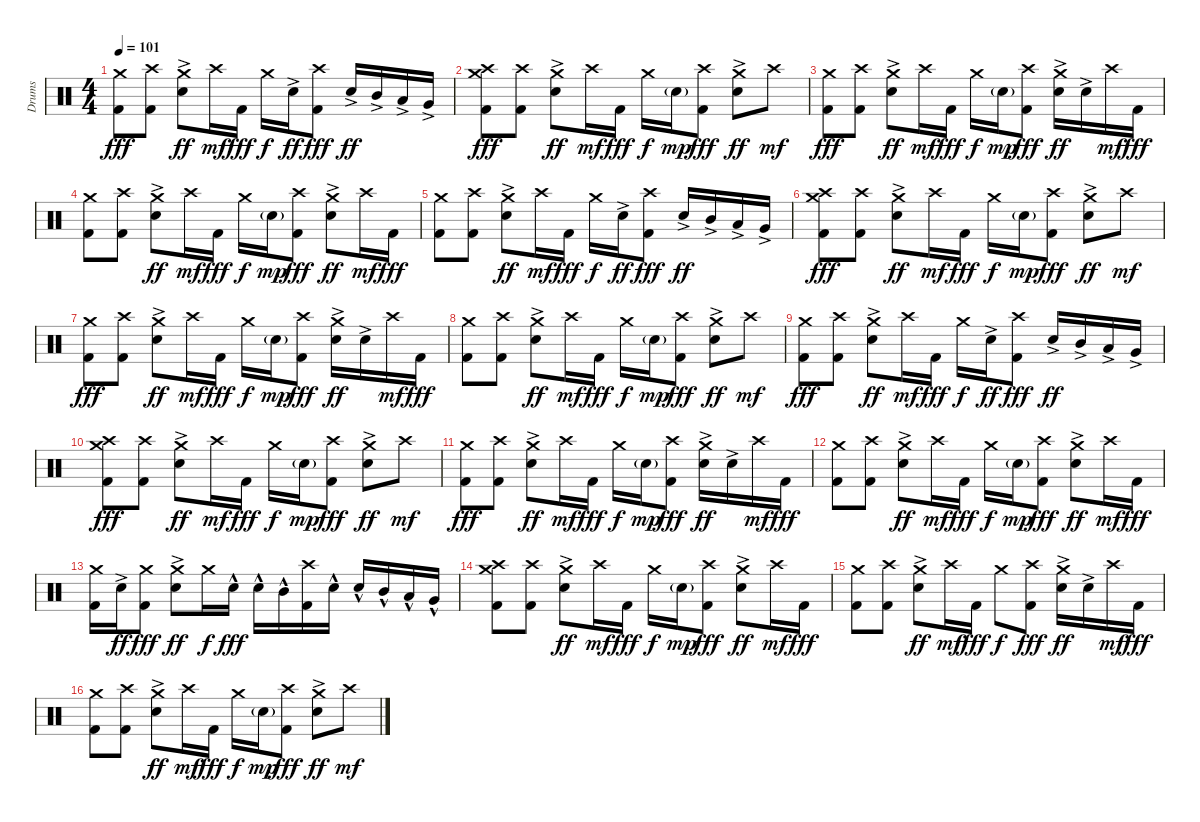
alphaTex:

\track ("Drums" "Drums") {instrument percussion}
\staff {score}
\articulation defaults
\ts (4 4)
\tempo 101
\clef neutral
\ks c
("Crash medium (hit)" "Kick (hit) 2").8{dy fff} ("Crash high (hit)" "Kick (hit) 2").8 ("Crash medium (hit)" "Electric Snare (hit)"{ac}).8{dy ff} "Crash high (hit)".16{dy mf} "Kick (hit) 2".16{dy fff} "Crash medium (hit)".16{dy f} "Electric Snare (hit)"{ac}.16{dy ff} ("Crash high (hit)" "Kick (hit) 2").8{dy fff} "Electric Snare (hit)"{ac}.16{dy ff} "Mid Tom (hit)"{ac}.16 "Low Tom (hit)"{ac}.16 "Very Low Tom (hit)"{ac}.16 |
("Crash medium (hit)" "Crash high (hit)" "Kick (hit) 2").8{dy fff} ("Crash high (hit)" "Kick (hit) 2").8 ("Crash medium (hit)" "Electric Snare (hit)"{ac}).8{dy ff} "Crash high (hit)".16{dy mf} "Kick (hit) 2".16{dy fff} "Crash medium (hit)".16{dy f} "Snare (hit) 2"{g}.16{dy mp} ("Crash high (hit)" "Kick (hit) 2").8{dy fff} ("Crash medium (hit)" "Electric Snare (hit)"{ac}).8{dy ff} "Crash high (hit)".8{dy mf} |
("Crash medium (hit)" "Kick (hit) 2").8{dy fff} ("Crash high (hit)" "Kick (hit) 2").8 ("Crash medium (hit)" "Electric Snare (hit)"{ac}).8{dy ff} "Crash high (hit)".16{dy mf} "Kick (hit) 2".16{dy fff} "Crash medium (hit)".16{dy f} "Snare (hit) 2"{g}.16{dy mp} ("Crash high (hit)" "Kick (hit) 2").8{dy fff} ("Crash medium (hit)" "Electric Snare (hit)"{ac}).16{dy ff} "Electric Snare (hit)"{ac}.16 "Crash high (hit)".16{dy mf} "Kick (hit) 2".16{dy fff} |
("Crash medium (hit)" "Kick (hit) 2").8 ("Crash high (hit)" "Kick (hit) 2").8 ("Crash medium (hit)" "Electric Snare (hit)"{ac}).8{dy ff} "Crash high (hit)".16{dy mf} "Kick (hit) 2".16{dy fff} "Crash medium (hit)".16{dy f} "Snare (hit) 2"{g}.16{dy mp} ("Crash high (hit)" "Kick (hit) 2").8{dy fff} ("Crash medium (hit)" "Electric Snare (hit)"{ac}).8{dy ff} "Crash high (hit)".16{dy mf} "Kick (hit) 2".16{dy fff} |
("Crash medium (hit)" "Kick (hit) 2").8 ("Crash high (hit)" "Kick (hit) 2").8 ("Crash medium (hit)" "Electric Snare (hit)"{ac}).8{dy ff} "Crash high (hit)".16{dy mf} "Kick (hit) 2".16{dy fff} "Crash medium (hit)".16{dy f} "Electric Snare (hit)"{ac}.16{dy ff} ("Crash high (hit)" "Kick (hit) 2").8{dy fff} "Electric Snare (hit)"{ac}.16{dy ff} "Mid Tom (hit)"{ac}.16 "Low Tom (hit)"{ac}.16 "Very Low Tom (hit)"{ac}.16 |
("Crash medium (hit)" "Crash high (hit)" "Kick (hit) 2").8{dy fff} ("Crash high (hit)" "Kick (hit) 2").8 ("Crash medium (hit)" "Electric Snare (hit)"{ac}).8{dy ff} "Crash high (hit)".16{dy mf} "Kick (hit) 2".16{dy fff} "Crash medium (hit)".16{dy f} "Snare (hit) 2"{g}.16{dy mp} ("Crash high (hit)" "Kick (hit) 2").8{dy fff} ("Crash medium (hit)" "Electric Snare (hit)"{ac}).8{dy ff} "Crash high (hit)".8{dy mf} |
("Crash medium (hit)" "Kick (hit) 2").8{dy fff} ("Crash high (hit)" "Kick (hit) 2").8 ("Crash medium (hit)" "Electric Snare (hit)"{ac}).8{dy ff} "Crash high (hit)".16{dy mf} "Kick (hit) 2".16{dy fff} "Crash medium (hit)".16{dy f} "Snare (hit) 2"{g}.16{dy mp} ("Crash high (hit)" "Kick (hit) 2").8{dy fff} ("Crash medium (hit)" "Electric Snare (hit)"{ac}).16{dy ff} "Electric Snare (hit)"{ac}.16 "Crash high (hit)".16{dy mf} "Kick (hit) 2".16{dy fff} |
("Crash medium (hit)" "Kick (hit) 2").8 ("Crash high (hit)" "Kick (hit) 2").8 ("Crash medium (hit)" "Electric Snare (hit)"{ac}).8{dy ff} "Crash high (hit)".16{dy mf} "Kick (hit) 2".16{dy fff} "Crash medium (hit)".16{dy f} "Snare (hit) 2"{g}.16{dy mp} ("Crash high (hit)" "Kick (hit) 2").8{dy fff} ("Crash medium (hit)" "Electric Snare (hit)"{ac}).8{dy ff} "Crash high (hit)".8{dy mf} |
("Crash medium (hit)" "Kick (hit) 2").8{dy fff} ("Crash high (hit)" "Kick (hit) 2").8 ("Crash medium (hit)" "Electric Snare (hit)"{ac}).8{dy ff} "Crash high (hit)".16{dy mf} "Kick (hit) 2".16{dy fff} "Crash medium (hit)".16{dy f} "Electric Snare (hit)"{ac}.16{dy ff} ("Crash high (hit)" "Kick (hit) 2").8{dy fff} "Electric Snare (hit)"{ac}.16{dy ff} "Mid Tom (hit)"{ac}.16 "Low Tom (hit)"{ac}.16 "Very Low Tom (hit)"{ac}.16 |
("Crash medium (hit)" "Crash high (hit)" "Kick (hit) 2").8{dy fff} ("Crash high (hit)" "Kick (hit) 2").8 ("Crash medium (hit)" "Electric Snare (hit)"{ac}).8{dy ff} "Crash high (hit)".16{dy mf} "Kick (hit) 2".16{dy fff} "Crash medium (hit)".16{dy f} "Snare (hit) 2"{g}.16{dy mp} ("Crash high (hit)" "Kick (hit) 2").8{dy fff} ("Crash medium (hit)" "Electric Snare (hit)"{ac}).8{dy ff} "Crash high (hit)".8{dy mf} |
("Crash medium (hit)" "Kick (hit) 2").8{dy fff} ("Crash high (hit)" "Kick (hit) 2").8 ("Crash medium (hit)" "Electric Snare (hit)"{ac}).8{dy ff} "Crash high (hit)".16{dy mf} "Kick (hit) 2".16{dy fff} "Crash medium (hit)".16{dy f} "Snare (hit) 2"{g}.16{dy mp} ("Crash high (hit)" "Kick (hit) 2").8{dy fff} ("Crash medium (hit)" "Electric Snare (hit)"{ac}).16{dy ff} "Electric Snare (hit)"{ac}.16 "Crash high (hit)".16{dy mf} "Kick (hit) 2".16{dy fff} |
("Crash medium (hit)" "Kick (hit) 2").8 ("Crash high (hit)" "Kick (hit) 2").8 ("Crash medium (hit)" "Electric Snare (hit)"{ac}).8{dy ff} "Crash high (hit)".16{dy mf} "Kick (hit) 2".16{dy fff} "Crash medium (hit)".16{dy f} "Snare (hit) 2"{g}.16{dy mp} ("Crash high (hit)" "Kick (hit) 2").8{dy fff} ("Crash medium (hit)" "Electric Snare (hit)"{ac}).8{dy ff} "Crash high (hit)".16{dy mf} "Kick (hit) 2".16{dy fff} |
("Crash medium (hit)" "Kick (hit) 2").16 "Electric Snare (hit)"{ac}.16{dy ff} ("Crash medium (hit)" "Kick (hit) 2").8{dy fff} ("Crash medium (hit)" "Electric Snare (hit)"{ac}).8{dy ff} "Crash medium (hit)".16{dy f} "Electric Snare (hit)"{hac}.16{dy fff} "Electric Snare (hit)"{hac}.16 "Mid Tom (hit)"{hac}.16 ("Crash high (hit)" "Kick (hit) 2").16 "Electric Snare (hit)"{hac}.16 "Electric Snare (hit)"{hac}.16 "Mid Tom (hit)"{hac}.16 "Low Tom (hit)"{hac}.16 "Very Low Tom (hit)"{hac}.16 |
("Crash medium (hit)" "Crash high (hit)" "Kick (hit) 2").8 ("Crash high (hit)" "Kick (hit) 2").8 ("Crash medium (hit)" "Electric Snare (hit)"{ac}).8{dy ff} "Crash high (hit)".16{dy mf} "Kick (hit) 2".16{dy fff} "Crash medium (hit)".16{dy f} "Snare (hit) 2"{g}.16{dy mp} ("Crash high (hit)" "Kick (hit) 2").8{dy fff} ("Crash medium (hit)" "Electric Snare (hit)"{ac}).8{dy ff} "Crash high (hit)".16{dy mf} "Kick (hit) 2".16{dy fff} |
("Crash medium (hit)" "Kick (hit) 2").8 ("Crash high (hit)" "Kick (hit) 2").8 ("Crash medium (hit)" "Electric Snare (hit)"{ac}).8{dy ff} "Crash high (hit)".16{dy mf} "Kick (hit) 2".16{dy fff} "Crash medium (hit)".8{dy f} ("Crash high (hit)" "Kick (hit) 2").8{dy fff} ("Crash medium (hit)" "Electric Snare (hit)"{ac}).16{dy ff} "Electric Snare (hit)"{ac}.16 "Crash high (hit)".16{dy mf} "Kick (hit) 2".16{dy fff} |
("Crash medium (hit)" "Kick (hit) 2").8 ("Crash high (hit)" "Kick (hit) 2").8 ("Crash medium (hit)" "Electric Snare (hit)"{ac}).8{dy ff} "Crash high (hit)".16{dy mf} "Kick (hit) 2".16{dy fff} "Crash medium (hit)".16{dy f} "Snare (hit) 2"{g}.16{dy mp} ("Crash high (hit)" "Kick (hit) 2").8{dy fff} ("Crash medium (hit)" "Electric Snare (hit)"{ac}).8{dy ff} "Crash high (hit)".8{dy mf}
